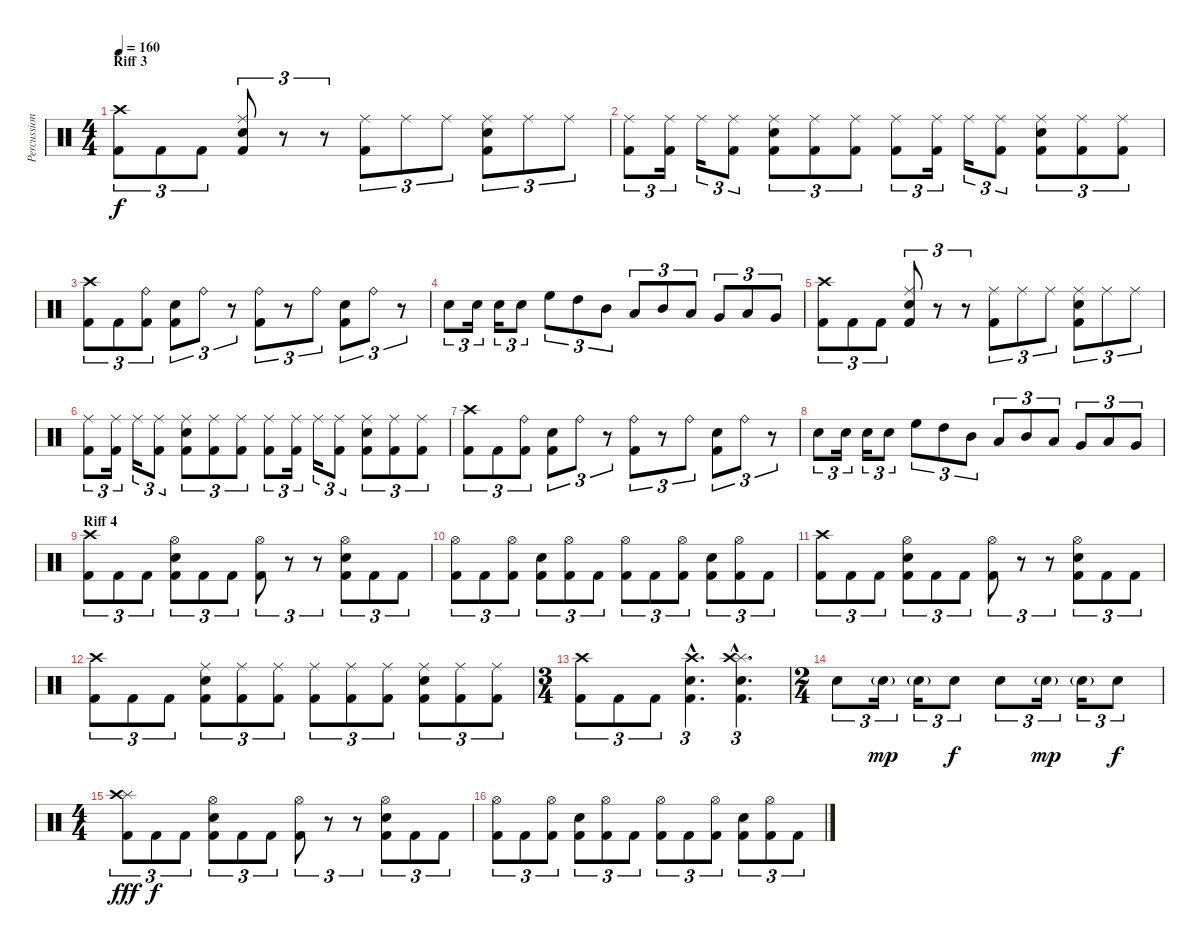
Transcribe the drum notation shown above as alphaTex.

\track ("Percussion" "Percussion") {instrument percussion}
\staff {score}
\articulation defaults
\ts (4 4)
\section ("" "Riff 3")
\tempo 160
\clef neutral
\ks c
("Crash high (hit)" "Kick (hit) 2").8{tu (3 2) dy f} "Kick (hit) 2".8{tu (3 2)} "Kick (hit) 2".8{tu (3 2)} ("Ride (middle)" "Electric Snare (hit)" "Kick (hit) 2").8{tu (3 2)} r.8{tu (3 2)} r.8{tu (3 2)} ("Ride (middle)" "Kick (hit) 2").8{tu (3 2)} "Ride (middle)".8{tu (3 2)} "Ride (middle)".8{tu (3 2)} ("Ride (middle)" "Electric Snare (hit)" "Kick (hit) 2").8{tu (3 2)} "Ride (middle)".8{tu (3 2)} "Ride (middle)".8{tu (3 2)} |
("Ride (middle)" "Kick (hit) 2").8{tu (3 2)} ("Ride (middle)" "Kick (hit) 2").16{tu (3 2)} "Ride (middle)".16{tu (3 2)} ("Ride (middle)" "Kick (hit) 2").8{tu (3 2)} ("Ride (middle)" "Electric Snare (hit)" "Kick (hit) 2").8{tu (3 2)} ("Ride (middle)" "Kick (hit) 2").8{tu (3 2)} ("Ride (middle)" "Kick (hit) 2").8{tu (3 2)} ("Ride (middle)" "Kick (hit) 2").8{tu (3 2)} ("Ride (middle)" "Kick (hit) 2").16{tu (3 2)} "Ride (middle)".16{tu (3 2)} ("Ride (middle)" "Kick (hit) 2").8{tu (3 2)} ("Ride (middle)" "Electric Snare (hit)" "Kick (hit) 2").8{tu (3 2)} ("Ride (middle)" "Kick (hit) 2").8{tu (3 2)} ("Ride (middle)" "Kick (hit) 2").8{tu (3 2)} |
("Crash high (hit)" "Kick (hit) 2").8{tu (3 2)} "Kick (hit) 2".8{tu (3 2)} ("Ride (bell)" "Kick (hit) 2").8{tu (3 2)} ("Electric Snare (hit)" "Kick (hit) 2").8{tu (3 2)} "Ride (bell)".8{tu (3 2)} r.8{tu (3 2)} ("Ride (bell)" "Kick (hit) 2").8{tu (3 2)} r.8{tu (3 2)} "Ride (bell)".8{tu (3 2)} ("Electric Snare (hit)" "Kick (hit) 2").8{tu (3 2)} "Ride (bell)".8{tu (3 2)} r.8{tu (3 2)} |
"Electric Snare (hit)".8{tu (3 2)} "Electric Snare (hit)".16{tu (3 2)} "Electric Snare (hit)".16{tu (3 2)} "Electric Snare (hit)".8{tu (3 2)} "High Floor Tom (hit)".8{tu (3 2)} "High Tom (hit)".8{tu (3 2)} "Mid Tom (hit)".8{tu (3 2)} "Low Tom (hit)".8{tu (3 2)} "Mid Tom (hit)".8{tu (3 2)} "Low Tom (hit)".8{tu (3 2)} "Very Low Tom (hit)".8{tu (3 2)} "Low Floor Tom (hit)".8{tu (3 2)} "Very Low Tom (hit)".8{tu (3 2)} |
("Crash high (hit)" "Kick (hit) 2").8{tu (3 2)} "Kick (hit) 2".8{tu (3 2)} "Kick (hit) 2".8{tu (3 2)} ("Ride (middle)" "Electric Snare (hit)" "Kick (hit) 2").8{tu (3 2)} r.8{tu (3 2)} r.8{tu (3 2)} ("Ride (middle)" "Kick (hit) 2").8{tu (3 2)} "Ride (middle)".8{tu (3 2)} "Ride (middle)".8{tu (3 2)} ("Ride (middle)" "Electric Snare (hit)" "Kick (hit) 2").8{tu (3 2)} "Ride (middle)".8{tu (3 2)} "Ride (middle)".8{tu (3 2)} |
("Ride (middle)" "Kick (hit) 2").8{tu (3 2)} ("Ride (middle)" "Kick (hit) 2").16{tu (3 2)} "Ride (middle)".16{tu (3 2)} ("Ride (middle)" "Kick (hit) 2").8{tu (3 2)} ("Ride (middle)" "Electric Snare (hit)" "Kick (hit) 2").8{tu (3 2)} ("Ride (middle)" "Kick (hit) 2").8{tu (3 2)} ("Ride (middle)" "Kick (hit) 2").8{tu (3 2)} ("Ride (middle)" "Kick (hit) 2").8{tu (3 2)} ("Ride (middle)" "Kick (hit) 2").16{tu (3 2)} "Ride (middle)".16{tu (3 2)} ("Ride (middle)" "Kick (hit) 2").8{tu (3 2)} ("Ride (middle)" "Electric Snare (hit)" "Kick (hit) 2").8{tu (3 2)} ("Ride (middle)" "Kick (hit) 2").8{tu (3 2)} ("Ride (middle)" "Kick (hit) 2").8{tu (3 2)} |
("Crash high (hit)" "Kick (hit) 2").8{tu (3 2)} "Kick (hit) 2".8{tu (3 2)} ("Ride (bell)" "Kick (hit) 2").8{tu (3 2)} ("Electric Snare (hit)" "Kick (hit) 2").8{tu (3 2)} "Ride (bell)".8{tu (3 2)} r.8{tu (3 2)} ("Ride (bell)" "Kick (hit) 2").8{tu (3 2)} r.8{tu (3 2)} "Ride (bell)".8{tu (3 2)} ("Electric Snare (hit)" "Kick (hit) 2").8{tu (3 2)} "Ride (bell)".8{tu (3 2)} r.8{tu (3 2)} |
"Electric Snare (hit)".8{tu (3 2)} "Electric Snare (hit)".16{tu (3 2)} "Electric Snare (hit)".16{tu (3 2)} "Electric Snare (hit)".8{tu (3 2)} "High Floor Tom (hit)".8{tu (3 2)} "High Tom (hit)".8{tu (3 2)} "Mid Tom (hit)".8{tu (3 2)} "Low Tom (hit)".8{tu (3 2)} "Mid Tom (hit)".8{tu (3 2)} "Low Tom (hit)".8{tu (3 2)} "Very Low Tom (hit)".8{tu (3 2)} "Low Floor Tom (hit)".8{tu (3 2)} "Very Low Tom (hit)".8{tu (3 2)} |
\section ("" "Riff 4")
("Crash high (hit)" "Kick (hit) 2").8{tu (3 2)} "Kick (hit) 2".8{tu (3 2)} "Kick (hit) 2".8{tu (3 2)} ("Hi-Hat (open)" "Electric Snare (hit)" "Kick (hit) 2").8{tu (3 2)} "Kick (hit) 2".8{tu (3 2)} "Kick (hit) 2".8{tu (3 2)} ("Hi-Hat (open)" "Kick (hit) 2").8{tu (3 2)} r.8{tu (3 2)} r.8{tu (3 2)} ("Hi-Hat (open)" "Electric Snare (hit)" "Kick (hit) 2").8{tu (3 2)} "Kick (hit) 2".8{tu (3 2)} "Kick (hit) 2".8{tu (3 2)} |
("Hi-Hat (open)" "Kick (hit) 2").8{tu (3 2)} "Kick (hit) 2".8{tu (3 2)} ("Hi-Hat (open)" "Kick (hit) 2").8{tu (3 2)} ("Electric Snare (hit)" "Kick (hit) 2").8{tu (3 2)} ("Hi-Hat (open)" "Kick (hit) 2").8{tu (3 2)} "Kick (hit) 2".8{tu (3 2)} ("Hi-Hat (open)" "Kick (hit) 2").8{tu (3 2)} "Kick (hit) 2".8{tu (3 2)} ("Hi-Hat (open)" "Kick (hit) 2").8{tu (3 2)} ("Electric Snare (hit)" "Kick (hit) 2").8{tu (3 2)} ("Hi-Hat (open)" "Kick (hit) 2").8{tu (3 2)} "Kick (hit) 2".8{tu (3 2)} |
("Crash high (hit)" "Kick (hit) 2").8{tu (3 2)} "Kick (hit) 2".8{tu (3 2)} "Kick (hit) 2".8{tu (3 2)} ("Hi-Hat (open)" "Electric Snare (hit)" "Kick (hit) 2").8{tu (3 2)} "Kick (hit) 2".8{tu (3 2)} "Kick (hit) 2".8{tu (3 2)} ("Hi-Hat (open)" "Kick (hit) 2").8{tu (3 2)} r.8{tu (3 2)} r.8{tu (3 2)} ("Hi-Hat (open)" "Electric Snare (hit)" "Kick (hit) 2").8{tu (3 2)} "Kick (hit) 2".8{tu (3 2)} "Kick (hit) 2".8{tu (3 2)} |
("Crash high (hit)" "Kick (hit) 2").8{tu (3 2)} "Kick (hit) 2".8{tu (3 2)} "Kick (hit) 2".8{tu (3 2)} ("Ride (middle)" "Electric Snare (hit)" "Kick (hit) 2").8{tu (3 2)} ("Ride (middle)" "Kick (hit) 2").8{tu (3 2)} ("Ride (middle)" "Kick (hit) 2").8{tu (3 2)} ("Ride (middle)" "Kick (hit) 2").8{tu (3 2)} ("Ride (middle)" "Kick (hit) 2").8{tu (3 2)} ("Ride (middle)" "Kick (hit) 2").8{tu (3 2)} ("Ride (middle)" "Electric Snare (hit)" "Kick (hit) 2").8{tu (3 2)} ("Ride (middle)" "Kick (hit) 2").8{tu (3 2)} ("Ride (middle)" "Kick (hit) 2").8{tu (3 2)} |
\ts (3 4)
("Crash high (hit)" "Kick (hit) 2").8{tu (3 2)} "Kick (hit) 2".8{tu (3 2)} "Kick (hit) 2".8{tu (3 2)} ("Crash high (hit)"{hac} "Electric Snare (hit)"{hac} "Kick (hit) 2"{hac}).4{d tu (3 2)} ("Splash (hit)"{hac} "Crash high (hit)"{hac} "Electric Snare (hit)"{hac} "Kick (hit) 2"{hac}).4{d tu (3 2)} |
\ts (2 4)
"Electric Snare (hit)".8{tu (3 2)} "Electric Snare (hit)"{g}.16{tu (3 2) dy mp} "Electric Snare (hit)"{g}.16{tu (3 2)} "Electric Snare (hit)".8{tu (3 2) dy f} "Electric Snare (hit)".8{tu (3 2)} "Electric Snare (hit)"{g}.16{tu (3 2) dy mp} "Electric Snare (hit)"{g}.16{tu (3 2)} "Electric Snare (hit)".8{tu (3 2) dy f} |
\ts (4 4)
("Splash (hit)" "Crash high (hit)" "Kick (hit) 2").8{tu (3 2) dy fff} "Kick (hit) 2".8{tu (3 2) dy f} "Kick (hit) 2".8{tu (3 2)} ("Hi-Hat (open)" "Electric Snare (hit)" "Kick (hit) 2").8{tu (3 2)} "Kick (hit) 2".8{tu (3 2)} "Kick (hit) 2".8{tu (3 2)} ("Hi-Hat (open)" "Kick (hit) 2").8{tu (3 2)} r.8{tu (3 2)} r.8{tu (3 2)} ("Hi-Hat (open)" "Electric Snare (hit)" "Kick (hit) 2").8{tu (3 2)} "Kick (hit) 2".8{tu (3 2)} "Kick (hit) 2".8{tu (3 2)} |
("Hi-Hat (open)" "Kick (hit) 2").8{tu (3 2)} "Kick (hit) 2".8{tu (3 2)} ("Hi-Hat (open)" "Kick (hit) 2").8{tu (3 2)} ("Electric Snare (hit)" "Kick (hit) 2").8{tu (3 2)} ("Hi-Hat (open)" "Kick (hit) 2").8{tu (3 2)} "Kick (hit) 2".8{tu (3 2)} ("Hi-Hat (open)" "Kick (hit) 2").8{tu (3 2)} "Kick (hit) 2".8{tu (3 2)} ("Hi-Hat (open)" "Kick (hit) 2").8{tu (3 2)} ("Electric Snare (hit)" "Kick (hit) 2").8{tu (3 2)} ("Hi-Hat (open)" "Kick (hit) 2").8{tu (3 2)} "Kick (hit) 2".8{tu (3 2)}
